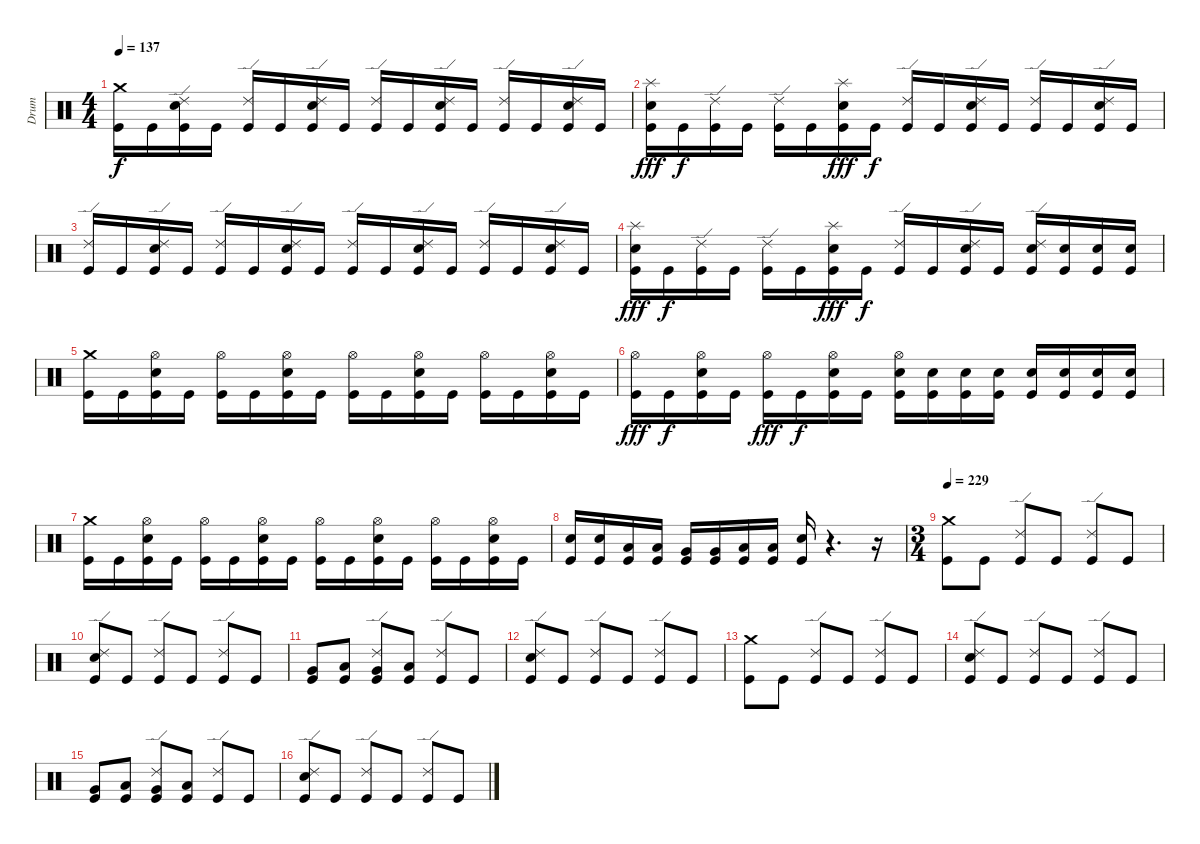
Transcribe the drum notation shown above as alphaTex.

\track ("Drum" "Drum") {instrument percussion}
\staff {score}
\articulation defaults
\ts (4 4)
\tempo 137
\clef neutral
\ks c
("Crash medium (hit)" "Kick (hit)").16{dy f} "Kick (hit)".16 ("Ride (edge) 2" "Snare (hit) 2" "Kick (hit)").16 "Kick (hit)".16 ("Ride (edge) 2" "Kick (hit)").16 "Kick (hit)".16 ("Ride (edge) 2" "Snare (hit) 2" "Kick (hit)").16 "Kick (hit)".16 ("Ride (edge) 2" "Kick (hit)").16 "Kick (hit)".16 ("Ride (edge) 2" "Snare (hit) 2" "Kick (hit)").16 "Kick (hit)".16 ("Ride (edge) 2" "Kick (hit)").16 "Kick (hit)".16 ("Ride (edge) 2" "Snare (hit) 2" "Kick (hit)").16 "Kick (hit)".16 |
("Splash (hit)" "Snare (hit) 2" "Kick (hit)").16{dy fff} "Kick (hit)".16{dy f} ("Ride (edge) 2" "Kick (hit)").16 "Kick (hit)".16 ("Ride (edge) 2" "Kick (hit)").16 "Kick (hit)".16 ("Splash (hit)" "Snare (hit) 2" "Kick (hit)").16{dy fff} "Kick (hit)".16{dy f} ("Ride (edge) 2" "Kick (hit)").16 "Kick (hit)".16 ("Ride (edge) 2" "Snare (hit) 2" "Kick (hit)").16 "Kick (hit)".16 ("Ride (edge) 2" "Kick (hit)").16 "Kick (hit)".16 ("Ride (edge) 2" "Snare (hit) 2" "Kick (hit)").16 "Kick (hit)".16 |
("Ride (edge) 2" "Kick (hit)").16 "Kick (hit)".16 ("Ride (edge) 2" "Snare (hit) 2" "Kick (hit)").16 "Kick (hit)".16 ("Ride (edge) 2" "Kick (hit)").16 "Kick (hit)".16 ("Ride (edge) 2" "Snare (hit) 2" "Kick (hit)").16 "Kick (hit)".16 ("Ride (edge) 2" "Kick (hit)").16 "Kick (hit)".16 ("Ride (edge) 2" "Snare (hit) 2" "Kick (hit)").16 "Kick (hit)".16 ("Ride (edge) 2" "Kick (hit)").16 "Kick (hit)".16 ("Ride (edge) 2" "Snare (hit) 2" "Kick (hit)").16 "Kick (hit)".16 |
("Splash (hit)" "Snare (hit) 2" "Kick (hit)").16{dy fff} "Kick (hit)".16{dy f} ("Ride (edge) 2" "Kick (hit)").16 "Kick (hit)".16 ("Ride (edge) 2" "Kick (hit)").16 "Kick (hit)".16 ("Splash (hit)" "Snare (hit) 2" "Kick (hit)").16{dy fff} "Kick (hit)".16{dy f} ("Ride (edge) 2" "Kick (hit)").16 "Kick (hit)".16 ("Ride (edge) 2" "Snare (hit) 2" "Kick (hit)").16 "Kick (hit)".16 ("Ride (edge) 2" "Snare (hit) 2" "Kick (hit)").16 ("Snare (hit) 2" "Kick (hit)").16 ("Snare (hit) 2" "Kick (hit)").16 ("Snare (hit) 2" "Kick (hit)").16 |
("Crash medium (hit)" "Kick (hit)").16 "Kick (hit)".16 ("Hi-Hat (open)" "Snare (hit) 2" "Kick (hit)").16 "Kick (hit)".16 ("Hi-Hat (open)" "Kick (hit)").16 "Kick (hit)".16 ("Hi-Hat (open)" "Snare (hit) 2" "Kick (hit)").16 "Kick (hit)".16 ("Hi-Hat (open)" "Kick (hit)").16 "Kick (hit)".16 ("Hi-Hat (open)" "Snare (hit) 2" "Kick (hit)").16 "Kick (hit)".16 ("Hi-Hat (open)" "Kick (hit)").16 "Kick (hit)".16 ("Hi-Hat (open)" "Snare (hit) 2" "Kick (hit)").16 "Kick (hit)".16 |
("Hi-Hat (open)" "Kick (hit)").16{dy fff} "Kick (hit)".16{dy f} ("Hi-Hat (open)" "Snare (hit) 2" "Kick (hit)").16 "Kick (hit)".16 ("Hi-Hat (open)" "Kick (hit)").16{dy fff} "Kick (hit)".16{dy f} ("Hi-Hat (open)" "Snare (hit) 2" "Kick (hit)").16 "Kick (hit)".16 ("Hi-Hat (open)" "Snare (hit) 2" "Kick (hit)").16 ("Snare (hit) 2" "Kick (hit)").16 ("Snare (hit) 2" "Kick (hit)").16 ("Snare (hit) 2" "Kick (hit)").16 ("Snare (hit) 2" "Kick (hit)").16 ("Snare (hit) 2" "Kick (hit)").16 ("Snare (hit) 2" "Kick (hit)").16 ("Snare (hit) 2" "Kick (hit)").16 |
("Crash medium (hit)" "Kick (hit)").16 "Kick (hit)".16 ("Hi-Hat (open)" "Snare (hit) 2" "Kick (hit)").16 "Kick (hit)".16 ("Hi-Hat (open)" "Kick (hit)").16 "Kick (hit)".16 ("Hi-Hat (open)" "Snare (hit) 2" "Kick (hit)").16 "Kick (hit)".16 ("Hi-Hat (open)" "Kick (hit)").16 "Kick (hit)".16 ("Hi-Hat (open)" "Snare (hit) 2" "Kick (hit)").16 "Kick (hit)".16 ("Hi-Hat (open)" "Kick (hit)").16 "Kick (hit)".16 ("Hi-Hat (open)" "Snare (hit) 2" "Kick (hit)").16 "Kick (hit)".16 |
("Snare (hit) 2" "Kick (hit)").16 ("Snare (hit) 2" "Kick (hit)").16 ("Low Tom (hit)" "Kick (hit)").16 ("Low Tom (hit)" "Kick (hit)").16 ("Very Low Tom (hit)" "Kick (hit)").16 ("Very Low Tom (hit)" "Kick (hit)").16 ("Low Floor Tom (hit)" "Kick (hit)").16 ("Low Floor Tom (hit)" "Kick (hit)").16 ("Snare (hit) 2" "Kick (hit)").16 r.4{d} r.16 |
\ts (3 4)
\tempo 229
("Crash medium (hit)" "Kick (hit)").8 "Kick (hit)".8 ("Ride (edge) 2" "Kick (hit)").8 "Kick (hit)".8 ("Ride (edge) 2" "Kick (hit)").8 "Kick (hit)".8 |
("Ride (edge) 2" "Snare (hit) 2" "Kick (hit)").8 "Kick (hit)".8 ("Ride (edge) 2" "Kick (hit)").8 "Kick (hit)".8 ("Ride (edge) 2" "Kick (hit)").8 "Kick (hit)".8 |
("Very Low Tom (hit)" "Kick (hit)").8 ("Low Floor Tom (hit)" "Kick (hit)").8 ("Ride (edge) 2" "Very Low Tom (hit)" "Kick (hit)").8 ("Low Floor Tom (hit)" "Kick (hit)").8 ("Ride (edge) 2" "Kick (hit)").8 "Kick (hit)".8 |
("Ride (edge) 2" "Snare (hit) 2" "Kick (hit)").8 "Kick (hit)".8 ("Ride (edge) 2" "Kick (hit)").8 "Kick (hit)".8 ("Ride (edge) 2" "Kick (hit)").8 "Kick (hit)".8 |
("Crash medium (hit)" "Kick (hit)").8 "Kick (hit)".8 ("Ride (edge) 2" "Kick (hit)").8 "Kick (hit)".8 ("Ride (edge) 2" "Kick (hit)").8 "Kick (hit)".8 |
("Ride (edge) 2" "Snare (hit) 2" "Kick (hit)").8 "Kick (hit)".8 ("Ride (edge) 2" "Kick (hit)").8 "Kick (hit)".8 ("Ride (edge) 2" "Kick (hit)").8 "Kick (hit)".8 |
("Very Low Tom (hit)" "Kick (hit)").8 ("Low Floor Tom (hit)" "Kick (hit)").8 ("Ride (edge) 2" "Very Low Tom (hit)" "Kick (hit)").8 ("Low Floor Tom (hit)" "Kick (hit)").8 ("Ride (edge) 2" "Kick (hit)").8 "Kick (hit)".8 |
("Ride (edge) 2" "Snare (hit) 2" "Kick (hit)").8 "Kick (hit)".8 ("Ride (edge) 2" "Kick (hit)").8 "Kick (hit)".8 ("Ride (edge) 2" "Kick (hit)").8 "Kick (hit)".8
